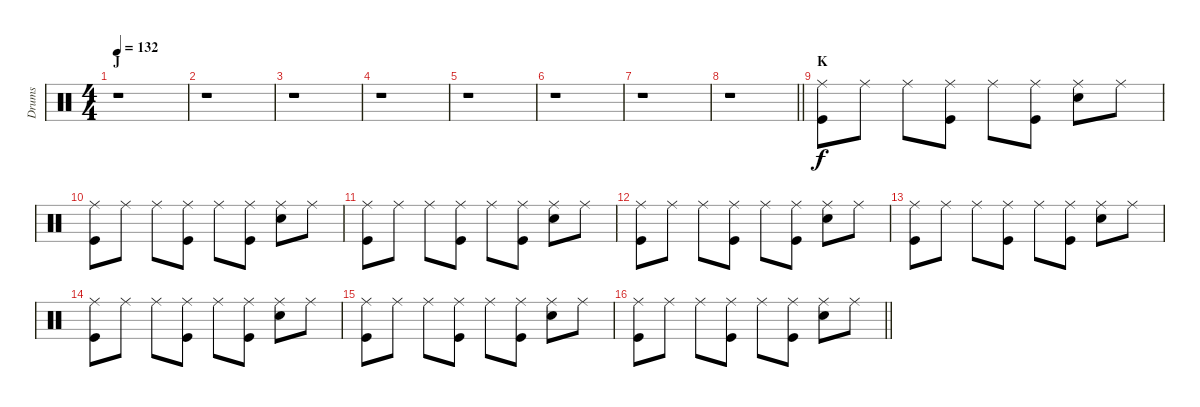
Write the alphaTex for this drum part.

\track ("Drums" "Drums") {instrument percussion}
\staff {score}
\articulation defaults
\ts (4 4)
\section ("" "J")
\tempo 132
\clef neutral
\ks c
r.1{dy f} |
r.1 |
r.1 |
r.1 |
r.1 |
r.1 |
r.1 |
\barLineRight lightlight
r.1 |
\section ("" "K")
("Ride (middle)" "Kick (hit)").8 "Ride (middle)".8 "Ride (middle)".8 ("Ride (middle)" "Kick (hit)").8 "Ride (middle)".8 ("Ride (middle)" "Kick (hit)").8 ("Ride (middle)" "Electric Snare (hit)").8 "Ride (middle)".8 |
("Ride (middle)" "Kick (hit)").8 "Ride (middle)".8 "Ride (middle)".8 ("Ride (middle)" "Kick (hit)").8 "Ride (middle)".8 ("Ride (middle)" "Kick (hit)").8 ("Ride (middle)" "Electric Snare (hit)").8 "Ride (middle)".8 |
("Ride (middle)" "Kick (hit)").8 "Ride (middle)".8 "Ride (middle)".8 ("Ride (middle)" "Kick (hit)").8 "Ride (middle)".8 ("Ride (middle)" "Kick (hit)").8 ("Ride (middle)" "Electric Snare (hit)").8 "Ride (middle)".8 |
("Ride (middle)" "Kick (hit)").8 "Ride (middle)".8 "Ride (middle)".8 ("Ride (middle)" "Kick (hit)").8 "Ride (middle)".8 ("Ride (middle)" "Kick (hit)").8 ("Ride (middle)" "Electric Snare (hit)").8 "Ride (middle)".8 |
("Ride (middle)" "Kick (hit)").8 "Ride (middle)".8 "Ride (middle)".8 ("Ride (middle)" "Kick (hit)").8 "Ride (middle)".8 ("Ride (middle)" "Kick (hit)").8 ("Ride (middle)" "Electric Snare (hit)").8 "Ride (middle)".8 |
("Ride (middle)" "Kick (hit)").8 "Ride (middle)".8 "Ride (middle)".8 ("Ride (middle)" "Kick (hit)").8 "Ride (middle)".8 ("Ride (middle)" "Kick (hit)").8 ("Ride (middle)" "Electric Snare (hit)").8 "Ride (middle)".8 |
("Ride (middle)" "Kick (hit)").8 "Ride (middle)".8 "Ride (middle)".8 ("Ride (middle)" "Kick (hit)").8 "Ride (middle)".8 ("Ride (middle)" "Kick (hit)").8 ("Ride (middle)" "Electric Snare (hit)").8 "Ride (middle)".8 |
\barLineRight lightlight
("Ride (middle)" "Kick (hit)").8 "Ride (middle)".8 "Ride (middle)".8 ("Ride (middle)" "Kick (hit)").8 "Ride (middle)".8 ("Ride (middle)" "Kick (hit)").8 ("Ride (middle)" "Electric Snare (hit)").8 "Ride (middle)".8
